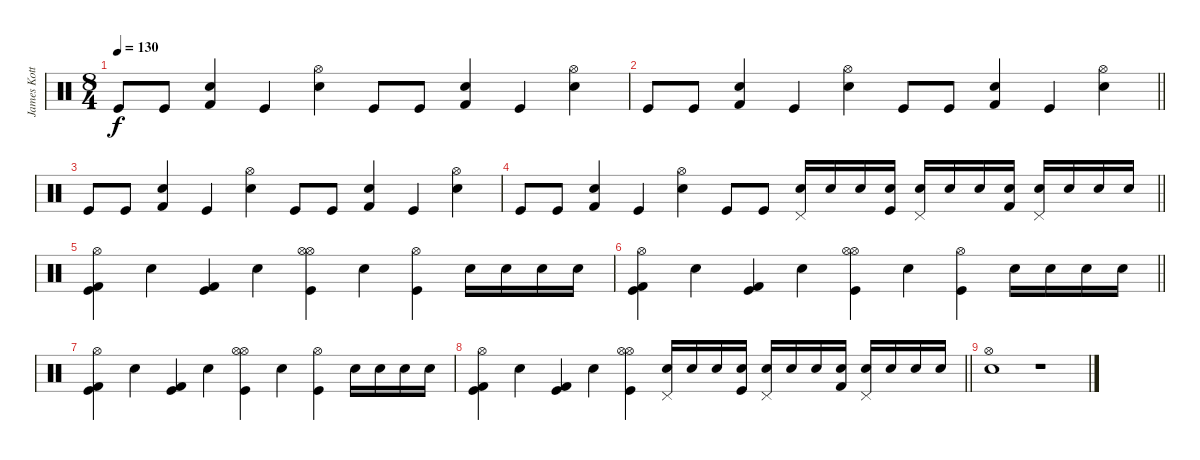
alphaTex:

\track ("James Kottak" "James Kott") {instrument percussion}
\staff {score}
\articulation defaults
\ts (8 4)
\tempo 130
\clef neutral
\ks c "Kick (hit)".8{dy f} "Kick (hit)".8
("Kick (hit) 2" "Snare (hit) 2").4 "Kick (hit)".4 ("Hi-Hat (open)" "Snare (hit) 2").4 "Kick (hit)".8 "Kick (hit)".8 ("Kick (hit) 2" "Snare (hit) 2").4 "Kick (hit)".4 ("Hi-Hat (open)" "Snare (hit) 2").4 |
\barLineRight lightlight "Kick (hit)".8 "Kick (hit)".8
("Kick (hit) 2" "Snare (hit) 2").4 "Kick (hit)".4 ("Hi-Hat (open)" "Snare (hit) 2").4 "Kick (hit)".8 "Kick (hit)".8 ("Kick (hit) 2" "Snare (hit) 2").4 "Kick (hit)".4 ("Hi-Hat (open)" "Snare (hit) 2").4 |
"Kick (hit)".8 "Kick (hit)".8 ("Kick (hit) 2" "Snare (hit) 2").4 "Kick (hit)".4 ("Hi-Hat (open)" "Snare (hit) 2").4 "Kick (hit)".8 "Kick (hit)".8 ("Kick (hit) 2" "Snare (hit) 2").4 "Kick (hit)".4 ("Hi-Hat (open)" "Snare (hit) 2").4 |
\barLineRight lightlight "Kick (hit)".8 "Kick (hit)".8
("Kick (hit) 2" "Snare (hit) 2").4 "Kick (hit)".4 ("Hi-Hat (open)" "Snare (hit) 2").4 "Kick (hit)".8 "Kick (hit)".8 ("Pedal Hi-Hat (hit)" "Snare (hit) 2").16 "Snare (hit) 2".16 "Snare (hit) 2".16 ("Snare (hit) 2" "Kick (hit)").16 ("Pedal Hi-Hat (hit)" "Snare (hit) 2").16 "Snare (hit) 2".16 "Snare (hit) 2".16 ("Snare (hit) 2" "Kick (hit) 2").16 ("Pedal Hi-Hat (hit)" "Snare (hit) 2").16 "Snare (hit) 2".16 "Snare (hit) 2".16 "Snare (hit) 2".16 |
\section ("" "")
("Hi-Hat (open)" "Kick (hit)" "Kick (hit) 2").4 "Snare (hit) 2".4 ("Kick (hit) 2" "Kick (hit)").4 "Snare (hit) 2".4 ("Hi-Hat (open)" "Kick (hit)" "Hi-Hat (open)").4 "Snare (hit) 2".4 ("Hi-Hat (open)" "Kick (hit)").4 "Snare (hit) 2".16 "Snare (hit) 2".16 "Snare (hit) 2".16 "Snare (hit) 2".16 |
\barLineRight lightlight
("Hi-Hat (open)" "Kick (hit)" "Kick (hit) 2").4 "Snare (hit) 2".4 ("Kick (hit) 2" "Kick (hit)").4 "Snare (hit) 2".4 ("Hi-Hat (open)" "Kick (hit)" "Hi-Hat (open)").4 "Snare (hit) 2".4 ("Hi-Hat (open)" "Kick (hit)").4 "Snare (hit) 2".16 "Snare (hit) 2".16 "Snare (hit) 2".16 "Snare (hit) 2".16 |
("Hi-Hat (open)" "Kick (hit)" "Kick (hit) 2").4 "Snare (hit) 2".4 ("Kick (hit) 2" "Kick (hit)").4 "Snare (hit) 2".4 ("Hi-Hat (open)" "Kick (hit)" "Hi-Hat (open)").4 "Snare (hit) 2".4 ("Hi-Hat (open)" "Kick (hit)").4 "Snare (hit) 2".16 "Snare (hit) 2".16 "Snare (hit) 2".16 "Snare (hit) 2".16 |
\barLineRight lightlight
("Hi-Hat (open)" "Kick (hit)" "Kick (hit) 2").4 "Snare (hit) 2".4 ("Kick (hit) 2" "Kick (hit)").4 "Snare (hit) 2".4 ("Hi-Hat (open)" "Kick (hit)" "Hi-Hat (open)").4 ("Pedal Hi-Hat (hit)" "Snare (hit) 2").16 "Snare (hit) 2".16 "Snare (hit) 2".16 ("Snare (hit) 2" "Kick (hit)").16 ("Pedal Hi-Hat (hit)" "Snare (hit) 2").16 "Snare (hit) 2".16 "Snare (hit) 2".16 ("Snare (hit) 2" "Kick (hit) 2").16 ("Pedal Hi-Hat (hit)" "Snare (hit) 2").16 "Snare (hit) 2".16 "Snare (hit) 2".16 "Snare (hit) 2".16 |
("Hi-Hat (open)" "Snare (hit) 2").1 r.1
